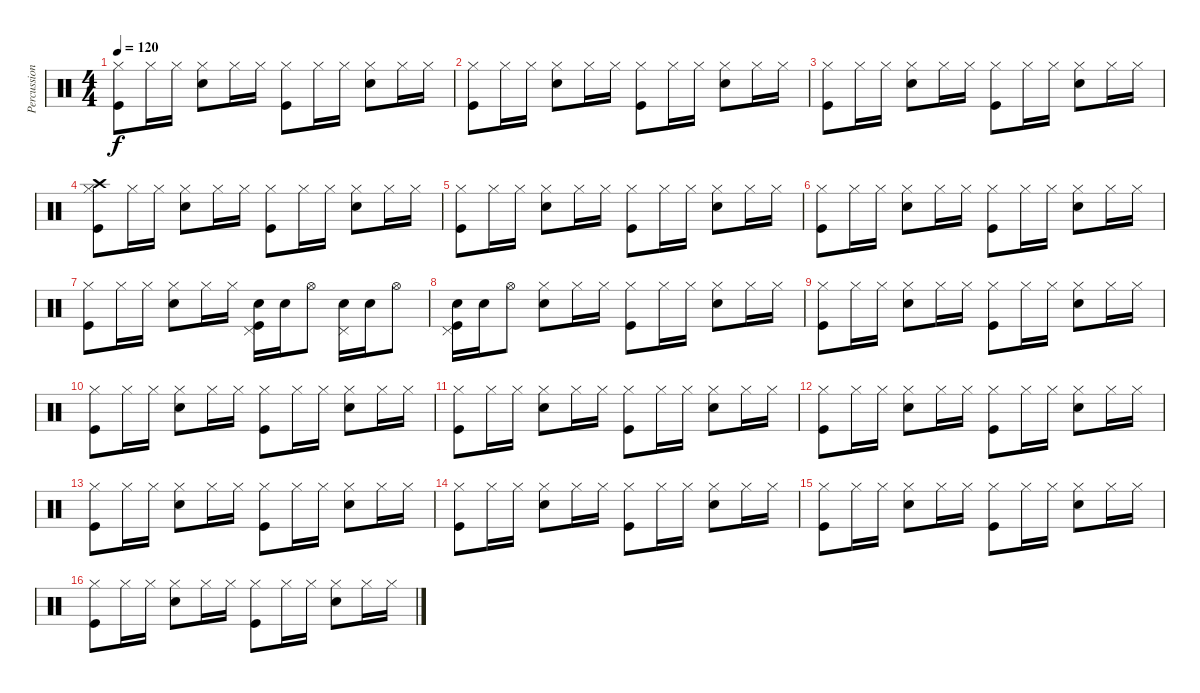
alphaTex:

\track ("Percussions" "Percussion") {instrument percussion}
\staff {score}
\articulation defaults
\ts (4 4)
\tempo 120
\clef neutral
\ks c
("Hi-Hat (closed)" "Kick (hit)").8{dy f} "Hi-Hat (closed)".16 "Hi-Hat (closed)".16 ("Hi-Hat (closed)" "Snare (hit) 2").8 "Hi-Hat (closed)".16 "Hi-Hat (closed)".16 ("Hi-Hat (closed)" "Kick (hit)").8 "Hi-Hat (closed)".16 "Hi-Hat (closed)".16 ("Hi-Hat (closed)" "Snare (hit) 2").8 "Hi-Hat (closed)".16 "Hi-Hat (closed)".16 |
("Hi-Hat (closed)" "Kick (hit)").8 "Hi-Hat (closed)".16 "Hi-Hat (closed)".16 ("Hi-Hat (closed)" "Snare (hit) 2").8 "Hi-Hat (closed)".16 "Hi-Hat (closed)".16 ("Hi-Hat (closed)" "Kick (hit)").8 "Hi-Hat (closed)".16 "Hi-Hat (closed)".16 ("Hi-Hat (closed)" "Snare (hit) 2").8 "Hi-Hat (closed)".16 "Hi-Hat (closed)".16 |
("Hi-Hat (closed)" "Kick (hit)").8 "Hi-Hat (closed)".16 "Hi-Hat (closed)".16 ("Hi-Hat (closed)" "Snare (hit) 2").8 "Hi-Hat (closed)".16 "Hi-Hat (closed)".16 ("Hi-Hat (closed)" "Kick (hit)").8 "Hi-Hat (closed)".16 "Hi-Hat (closed)".16 ("Hi-Hat (closed)" "Snare (hit) 2").8 "Hi-Hat (closed)".16 "Hi-Hat (closed)".16 |
("Crash high (hit)" "Hi-Hat (closed)" "Kick (hit)").8 "Hi-Hat (closed)".16 "Hi-Hat (closed)".16 ("Hi-Hat (closed)" "Snare (hit) 2").8 "Hi-Hat (closed)".16 "Hi-Hat (closed)".16 ("Hi-Hat (closed)" "Kick (hit)").8 "Hi-Hat (closed)".16 "Hi-Hat (closed)".16 ("Hi-Hat (closed)" "Snare (hit) 2").8 "Hi-Hat (closed)".16 "Hi-Hat (closed)".16 |
("Hi-Hat (closed)" "Kick (hit)").8 "Hi-Hat (closed)".16 "Hi-Hat (closed)".16 ("Hi-Hat (closed)" "Snare (hit) 2").8 "Hi-Hat (closed)".16 "Hi-Hat (closed)".16 ("Hi-Hat (closed)" "Kick (hit)").8 "Hi-Hat (closed)".16 "Hi-Hat (closed)".16 ("Hi-Hat (closed)" "Snare (hit) 2").8 "Hi-Hat (closed)".16 "Hi-Hat (closed)".16 |
("Hi-Hat (closed)" "Kick (hit)").8 "Hi-Hat (closed)".16 "Hi-Hat (closed)".16 ("Hi-Hat (closed)" "Snare (hit) 2").8 "Hi-Hat (closed)".16 "Hi-Hat (closed)".16 ("Hi-Hat (closed)" "Kick (hit)").8 "Hi-Hat (closed)".16 "Hi-Hat (closed)".16 ("Hi-Hat (closed)" "Snare (hit) 2").8 "Hi-Hat (closed)".16 "Hi-Hat (closed)".16 |
("Hi-Hat (closed)" "Kick (hit)").8 "Hi-Hat (closed)".16 "Hi-Hat (closed)".16 ("Hi-Hat (closed)" "Snare (hit) 2").8 "Hi-Hat (closed)".16 "Hi-Hat (closed)".16 ("Pedal Hi-Hat (hit)" "Snare (hit) 2" "Kick (hit)").16 "Snare (hit) 2".16 "Hi-Hat (open)".8 ("Pedal Hi-Hat (hit)" "Snare (hit) 2").16 "Snare (hit) 2".16 "Hi-Hat (open)".8 |
("Pedal Hi-Hat (hit)" "Snare (hit) 2" "Kick (hit)").16 "Snare (hit) 2".16 "Hi-Hat (open)".8 ("Hi-Hat (closed)" "Snare (hit) 2").8 "Hi-Hat (closed)".16 "Hi-Hat (closed)".16 ("Hi-Hat (closed)" "Kick (hit)").8 "Hi-Hat (closed)".16 "Hi-Hat (closed)".16 ("Hi-Hat (closed)" "Snare (hit) 2").8 "Hi-Hat (closed)".16 "Hi-Hat (closed)".16 |
("Hi-Hat (closed)" "Kick (hit)").8 "Hi-Hat (closed)".16 "Hi-Hat (closed)".16 ("Hi-Hat (closed)" "Snare (hit) 2").8 "Hi-Hat (closed)".16 "Hi-Hat (closed)".16 ("Hi-Hat (closed)" "Kick (hit)").8 "Hi-Hat (closed)".16 "Hi-Hat (closed)".16 ("Hi-Hat (closed)" "Snare (hit) 2").8 "Hi-Hat (closed)".16 "Hi-Hat (closed)".16 |
("Hi-Hat (closed)" "Kick (hit)").8 "Hi-Hat (closed)".16 "Hi-Hat (closed)".16 ("Hi-Hat (closed)" "Snare (hit) 2").8 "Hi-Hat (closed)".16 "Hi-Hat (closed)".16 ("Hi-Hat (closed)" "Kick (hit)").8 "Hi-Hat (closed)".16 "Hi-Hat (closed)".16 ("Hi-Hat (closed)" "Snare (hit) 2").8 "Hi-Hat (closed)".16 "Hi-Hat (closed)".16 |
("Hi-Hat (closed)" "Kick (hit)").8 "Hi-Hat (closed)".16 "Hi-Hat (closed)".16 ("Hi-Hat (closed)" "Snare (hit) 2").8 "Hi-Hat (closed)".16 "Hi-Hat (closed)".16 ("Hi-Hat (closed)" "Kick (hit)").8 "Hi-Hat (closed)".16 "Hi-Hat (closed)".16 ("Hi-Hat (closed)" "Snare (hit) 2").8 "Hi-Hat (closed)".16 "Hi-Hat (closed)".16 |
("Hi-Hat (closed)" "Kick (hit)").8 "Hi-Hat (closed)".16 "Hi-Hat (closed)".16 ("Hi-Hat (closed)" "Snare (hit) 2").8 "Hi-Hat (closed)".16 "Hi-Hat (closed)".16 ("Hi-Hat (closed)" "Kick (hit)").8 "Hi-Hat (closed)".16 "Hi-Hat (closed)".16 ("Hi-Hat (closed)" "Snare (hit) 2").8 "Hi-Hat (closed)".16 "Hi-Hat (closed)".16 |
("Hi-Hat (closed)" "Kick (hit)").8 "Hi-Hat (closed)".16 "Hi-Hat (closed)".16 ("Hi-Hat (closed)" "Snare (hit) 2").8 "Hi-Hat (closed)".16 "Hi-Hat (closed)".16 ("Hi-Hat (closed)" "Kick (hit)").8 "Hi-Hat (closed)".16 "Hi-Hat (closed)".16 ("Hi-Hat (closed)" "Snare (hit) 2").8 "Hi-Hat (closed)".16 "Hi-Hat (closed)".16 |
("Hi-Hat (closed)" "Kick (hit)").8 "Hi-Hat (closed)".16 "Hi-Hat (closed)".16 ("Hi-Hat (closed)" "Snare (hit) 2").8 "Hi-Hat (closed)".16 "Hi-Hat (closed)".16 ("Hi-Hat (closed)" "Kick (hit)").8 "Hi-Hat (closed)".16 "Hi-Hat (closed)".16 ("Hi-Hat (closed)" "Snare (hit) 2").8 "Hi-Hat (closed)".16 "Hi-Hat (closed)".16 |
("Hi-Hat (closed)" "Kick (hit)").8 "Hi-Hat (closed)".16 "Hi-Hat (closed)".16 ("Hi-Hat (closed)" "Snare (hit) 2").8 "Hi-Hat (closed)".16 "Hi-Hat (closed)".16 ("Hi-Hat (closed)" "Kick (hit)").8 "Hi-Hat (closed)".16 "Hi-Hat (closed)".16 ("Hi-Hat (closed)" "Snare (hit) 2").8 "Hi-Hat (closed)".16 "Hi-Hat (closed)".16 |
("Hi-Hat (closed)" "Kick (hit)").8 "Hi-Hat (closed)".16 "Hi-Hat (closed)".16 ("Hi-Hat (closed)" "Snare (hit) 2").8 "Hi-Hat (closed)".16 "Hi-Hat (closed)".16 ("Hi-Hat (closed)" "Kick (hit)").8 "Hi-Hat (closed)".16 "Hi-Hat (closed)".16 ("Hi-Hat (closed)" "Snare (hit) 2").8 "Hi-Hat (closed)".16 "Hi-Hat (closed)".16
